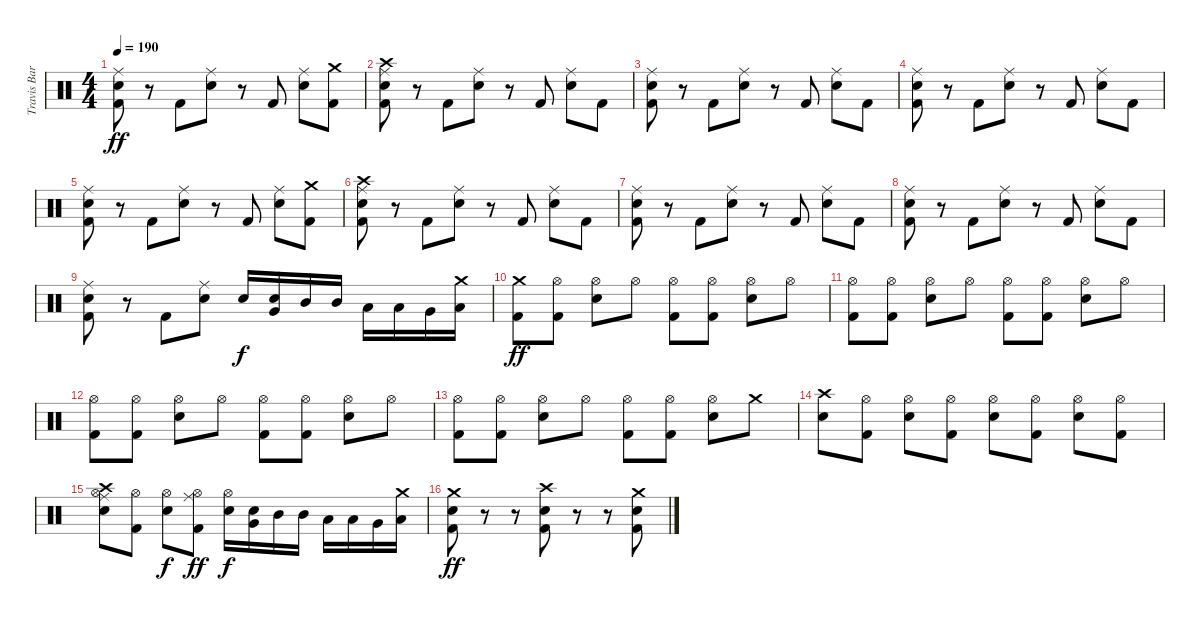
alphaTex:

\track ("Travis Barker - Drums" "Travis Bar") {instrument percussion}
\staff {score}
\articulation defaults
\ts (4 4)
\tempo 190
\clef neutral
\ks c
("Ride (middle)" "Electric Snare (hit)" "Kick (hit) 2").8{dy ff} r.8 "Kick (hit) 2".8 ("Ride (middle)" "Electric Snare (hit)").8 r.8 "Kick (hit) 2".8 ("Ride (middle)" "Electric Snare (hit)").8 ("Crash medium (hit)" "Kick (hit) 2").8 |
("Crash high (hit)" "Ride (middle)" "Electric Snare (hit)" "Kick (hit) 2").8 r.8 "Kick (hit) 2".8 ("Ride (middle)" "Electric Snare (hit)").8 r.8 "Kick (hit) 2".8 ("Ride (middle)" "Electric Snare (hit)").8 "Kick (hit) 2".8 |
("Ride (middle)" "Electric Snare (hit)" "Kick (hit) 2").8 r.8 "Kick (hit) 2".8 ("Ride (middle)" "Electric Snare (hit)").8 r.8 "Kick (hit) 2".8 ("Ride (middle)" "Electric Snare (hit)").8 "Kick (hit) 2".8 |
("Ride (middle)" "Electric Snare (hit)" "Kick (hit) 2").8 r.8 "Kick (hit) 2".8 ("Ride (middle)" "Electric Snare (hit)").8 r.8 "Kick (hit) 2".8 ("Ride (middle)" "Electric Snare (hit)").8 "Kick (hit) 2".8 |
("Ride (middle)" "Electric Snare (hit)" "Kick (hit) 2").8 r.8 "Kick (hit) 2".8 ("Ride (middle)" "Electric Snare (hit)").8 r.8 "Kick (hit) 2".8 ("Ride (middle)" "Electric Snare (hit)").8 ("Crash medium (hit)" "Kick (hit) 2").8 |
("Crash high (hit)" "Ride (middle)" "Electric Snare (hit)" "Kick (hit) 2").8 r.8 "Kick (hit) 2".8 ("Ride (middle)" "Electric Snare (hit)").8 r.8 "Kick (hit) 2".8 ("Ride (middle)" "Electric Snare (hit)").8 "Kick (hit) 2".8 |
("Ride (middle)" "Electric Snare (hit)" "Kick (hit) 2").8 r.8 "Kick (hit) 2".8 ("Ride (middle)" "Electric Snare (hit)").8 r.8 "Kick (hit) 2".8 ("Ride (middle)" "Electric Snare (hit)").8 "Kick (hit) 2".8 |
("Ride (middle)" "Electric Snare (hit)" "Kick (hit) 2").8 r.8 "Kick (hit) 2".8 ("Ride (middle)" "Electric Snare (hit)").8 r.8 "Kick (hit) 2".8 ("Ride (middle)" "Electric Snare (hit)").8 "Kick (hit) 2".8 |
("Ride (middle)" "Electric Snare (hit)" "Kick (hit) 2").8 r.8 "Kick (hit) 2".8 ("Ride (middle)" "Electric Snare (hit)").8 "Electric Snare (hit)".16{dy f} ("Very Low Tom (hit)" "Electric Snare (hit)").16 "Mid Tom (hit)".16 "Mid Tom (hit)".16 "Low Tom (hit)".16 "Low Tom (hit)".16 "Very Low Tom (hit)".16 ("Crash medium (hit)" "Low Floor Tom (hit)").16 |
("Crash medium (hit)" "Kick (hit) 2").8{dy ff} ("Hi-Hat (open)" "Kick (hit) 2").8 ("Hi-Hat (open)" "Electric Snare (hit)").8 "Hi-Hat (open)".8 ("Hi-Hat (open)" "Kick (hit) 2").8 ("Hi-Hat (open)" "Kick (hit) 2").8 ("Hi-Hat (open)" "Electric Snare (hit)").8 "Hi-Hat (open)".8 |
("Hi-Hat (open)" "Kick (hit) 2").8 ("Hi-Hat (open)" "Kick (hit) 2").8 ("Hi-Hat (open)" "Electric Snare (hit)").8 "Hi-Hat (open)".8 ("Hi-Hat (open)" "Kick (hit) 2").8 ("Hi-Hat (open)" "Kick (hit) 2").8 ("Hi-Hat (open)" "Electric Snare (hit)").8 "Hi-Hat (open)".8 |
("Hi-Hat (open)" "Kick (hit) 2").8 ("Hi-Hat (open)" "Kick (hit) 2").8 ("Hi-Hat (open)" "Electric Snare (hit)").8 "Hi-Hat (open)".8 ("Hi-Hat (open)" "Kick (hit) 2").8 ("Hi-Hat (open)" "Kick (hit) 2").8 ("Hi-Hat (open)" "Electric Snare (hit)").8 "Hi-Hat (open)".8 |
("Hi-Hat (open)" "Kick (hit) 2").8 ("Hi-Hat (open)" "Kick (hit) 2").8 ("Hi-Hat (open)" "Electric Snare (hit)").8 "Hi-Hat (open)".8 ("Hi-Hat (open)" "Kick (hit) 2").8 ("Hi-Hat (open)" "Kick (hit) 2").8 ("Hi-Hat (open)" "Electric Snare (hit)").8 "Crash medium (hit)".8 |
("Crash high (hit)" "Electric Snare (hit)").8 ("Hi-Hat (open)" "Kick (hit) 2").8 ("Hi-Hat (open)" "Electric Snare (hit)").8 ("Hi-Hat (open)" "Kick (hit) 2").8 ("Hi-Hat (open)" "Electric Snare (hit)").8 ("Hi-Hat (open)" "Kick (hit) 2").8 ("Hi-Hat (open)" "Electric Snare (hit)").8 ("Hi-Hat (open)" "Kick (hit) 2").8 |
("Crash high (hit)" "Hi-Hat (open)" "Ride (middle)" "Electric Snare (hit)").8 ("Hi-Hat (open)" "Kick (hit) 2").8 ("Hi-Hat (open)" "Electric Snare (hit)").8{dy f} ("Hi-Hat (open)" "Ride (middle)" "Kick (hit) 2").8{dy ff} ("Hi-Hat (open)" "Electric Snare (hit)").16{dy f} ("Very Low Tom (hit)" "Electric Snare (hit)").16 "Mid Tom (hit)".16 "Mid Tom (hit)".16 "Low Tom (hit)".16 "Low Tom (hit)".16 "Very Low Tom (hit)".16 ("Crash medium (hit)" "Low Floor Tom (hit)").16 |
("Crash medium (hit)" "Electric Snare (hit)" "Kick (hit) 2").8{dy ff} r.8 r.8 ("Crash high (hit)" "Electric Snare (hit)" "Kick (hit) 2").8 r.8 r.8 ("Crash medium (hit)" "Electric Snare (hit)" "Kick (hit) 2").8
